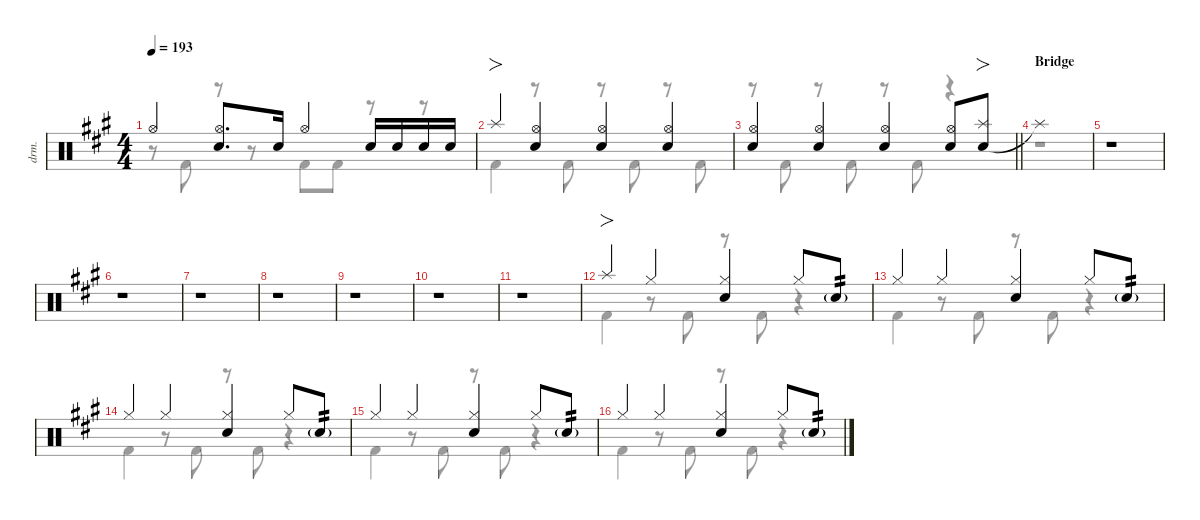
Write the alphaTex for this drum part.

\defaultSystemsLayout 4
\hideDynamics
\bracketExtendMode nobrackets
\track ("伊地知虹夏" "drm.") {instrument percussion}
\staff {score}
\articulation defaults
\voice
\ts (4 4)
\tempo 193
\clef neutral
\ks a "Hi-Hat (open)"{acc forcenatural}.4{dy mf beam Up}
("Hi-Hat (open)"{acc forcenatural} "Snare (hit) 2"{acc forcenatural}).8{d beam Up} "Snare (hit) 2"{acc forcenatural}.16{beam Up} "Hi-Hat (open)"{acc forcenatural}.4{beam Up} "Snare (hit) 2"{acc forcenatural}.16{beam Up} "Snare (hit) 2"{acc forcenatural}.16{beam Up} "Snare (hit) 2"{acc forcenatural}.16{beam Up} "Snare (hit) 2"{acc forcenatural}.16{beam Up} |
"Splash (hit)"{acc forcenatural}.4{fo beam Up} ("Hi-Hat (open)"{acc forcenatural} "Snare (hit) 2"{acc forcenatural}).4{beam Up} ("Hi-Hat (open)"{acc forcenatural} "Snare (hit) 2"{acc forcenatural}).4{beam Up} ("Hi-Hat (open)"{acc forcenatural} "Snare (hit) 2"{acc forcenatural}).4{beam Up} |
\barLineRight lightlight
("Hi-Hat (open)"{acc forcenatural} "Snare (hit) 2"{acc forcenatural}).4{beam Up} ("Hi-Hat (open)"{acc forcenatural} "Snare (hit) 2"{acc forcenatural}).4{beam Up} ("Hi-Hat (open)"{acc forcenatural} "Snare (hit) 2"{acc forcenatural}).4{beam Up} ("Hi-Hat (open)"{acc forcenatural} "Snare (hit) 2"{acc forcenatural}).8{beam Up} ("Snare (hit) 2"{acc forcenatural} "Splash (hit)"{acc forcenatural}).8{fo beam Up} |
\section ("" "Bridge")
"Splash (hit)"{t acc forcenatural}.1{beam Up} |
r.1{beam Up} |
r.1{beam Up} |
r.1{beam Up} |
r.1{beam Up} |
r.1{beam Up} |
r.1{beam Up} |
r.1{beam Up} |
"Splash (hit)"{acc forcenatural}.4{fo beam Up} "Hi-Hat (closed)"{acc forcenatural}.4{beam Up} ("Hi-Hat (closed)"{acc forcenatural} "Snare (hit) 2"{acc forcenatural}).4{beam Up} "Hi-Hat (closed)"{acc forcenatural}.8{beam Up} "Snare (hit) 2"{g acc forcenatural}.8{tp 2 beam Up} |
"Hi-Hat (closed)"{acc forcenatural}.4{beam Up} "Hi-Hat (closed)"{acc forcenatural}.4{beam Up} ("Hi-Hat (closed)"{acc forcenatural} "Snare (hit) 2"{acc forcenatural}).4{beam Up} "Hi-Hat (closed)"{acc forcenatural}.8{beam Up} "Snare (hit) 2"{g acc forcenatural}.8{tp 2 beam Up} |
"Hi-Hat (closed)"{acc forcenatural}.4{beam Up} "Hi-Hat (closed)"{acc forcenatural}.4{beam Up} ("Hi-Hat (closed)"{acc forcenatural} "Snare (hit) 2"{acc forcenatural}).4{beam Up} "Hi-Hat (closed)"{acc forcenatural}.8{beam Up} "Snare (hit) 2"{g acc forcenatural}.8{tp 2 beam Up} |
"Hi-Hat (closed)"{acc forcenatural}.4{beam Up} "Hi-Hat (closed)"{acc forcenatural}.4{beam Up} ("Hi-Hat (closed)"{acc forcenatural} "Snare (hit) 2"{acc forcenatural}).4{beam Up} "Hi-Hat (closed)"{acc forcenatural}.8{beam Up} "Snare (hit) 2"{g acc forcenatural}.8{tp 2 beam Up} |
"Hi-Hat (closed)"{acc forcenatural}.4{beam Up} "Hi-Hat (closed)"{acc forcenatural}.4{beam Up} ("Hi-Hat (closed)"{acc forcenatural} "Snare (hit) 2"{acc forcenatural}).4{beam Up} "Hi-Hat (closed)"{acc forcenatural}.8{beam Up} "Snare (hit) 2"{g acc forcenatural}.8{tp 2 beam Up}
\voice
\clef neutral
\ottava regular
\simile none
\ks a
r.8{dy mf beam Down} "Kick (hit) 2"{acc forcenatural}.8{beam Down} r.8{beam Down} r.8{beam Down} "Kick (hit) 2"{acc forcenatural}.8{beam Down} "Kick (hit) 2"{acc forcenatural}.8{beam Down} r.8{beam Down} r.8{beam Down} |
"Kick (hit) 2"{acc forcenatural}.4{beam Down} r.8{beam Down} "Kick (hit) 2"{acc forcenatural}.8{beam Down} r.8{beam Down} "Kick (hit) 2"{acc forcenatural}.8{beam Down} r.8{beam Down} "Kick (hit) 2"{acc forcenatural}.8{beam Down} |
\barLineRight lightlight
r.8{beam Down} "Kick (hit) 2"{acc forcenatural}.8{beam Down} r.8{beam Down} "Kick (hit) 2"{acc forcenatural}.8{beam Down} r.8{beam Down} "Kick (hit) 2"{acc forcenatural}.8{beam Down} r.4{beam Down} |
r.1{beam Down} |
r.1{beam Down} |
r.1{beam Down} |
r.1{beam Down} |
r.1{beam Down} |
r.1{beam Down} |
r.1{beam Down} |
r.1{beam Down} |
"Kick (hit) 2"{acc forcenatural}.4{beam Down} r.8{beam Down} "Kick (hit) 2"{acc forcenatural}.8{beam Down} r.8{beam Down} "Kick (hit) 2"{acc forcenatural}.8{beam Down} r.4{beam Down} |
"Kick (hit) 2"{acc forcenatural}.4{beam Down} r.8{beam Down} "Kick (hit) 2"{acc forcenatural}.8{beam Down} r.8{beam Down} "Kick (hit) 2"{acc forcenatural}.8{beam Down} r.4{beam Down} |
"Kick (hit) 2"{acc forcenatural}.4{beam Down} r.8{beam Down} "Kick (hit) 2"{acc forcenatural}.8{beam Down} r.8{beam Down} "Kick (hit) 2"{acc forcenatural}.8{beam Down} r.4{beam Down} |
"Kick (hit) 2"{acc forcenatural}.4{beam Down} r.8{beam Down} "Kick (hit) 2"{acc forcenatural}.8{beam Down} r.8{beam Down} "Kick (hit) 2"{acc forcenatural}.8{beam Down} r.4{beam Down} |
"Kick (hit) 2"{acc forcenatural}.4{beam Down} r.8{beam Down} "Kick (hit) 2"{acc forcenatural}.8{beam Down} r.8{beam Down} "Kick (hit) 2"{acc forcenatural}.8{beam Down} r.4{beam Down}
